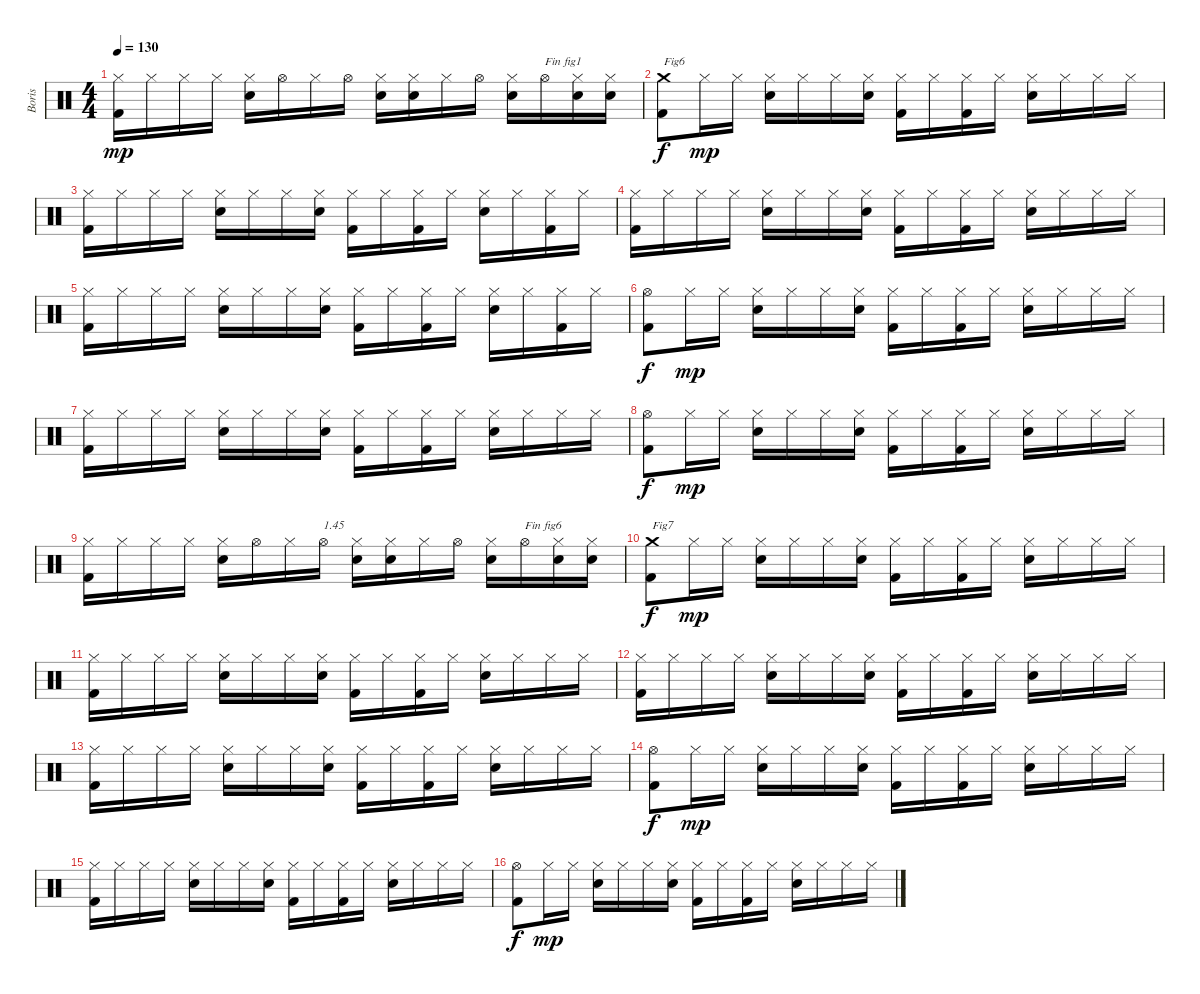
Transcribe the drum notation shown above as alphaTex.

\track ("Boris" "Boris") {instrument percussion}
\staff {score}
\articulation defaults
\ts (4 4)
\tempo 130
\clef neutral
\ks c
("Kick (hit) 2" "Hi-Hat (closed)").16{dy mp} "Hi-Hat (closed)".16 "Hi-Hat (closed)".16 "Hi-Hat (closed)".16 ("Electric Snare (hit)" "Hi-Hat (closed)").16 "Hi-Hat (open)".16 "Hi-Hat (closed)".16 "Hi-Hat (open)".16 ("Electric Snare (hit)" "Hi-Hat (closed)").16 ("Electric Snare (hit)" "Hi-Hat (closed)").16 "Hi-Hat (closed)".16 "Hi-Hat (open)".16 ("Electric Snare (hit)" "Hi-Hat (closed)").16 "Hi-Hat (open)".16{txt "Fin fig1"} ("Electric Snare (hit)" "Hi-Hat (closed)").16 ("Electric Snare (hit)" "Hi-Hat (closed)").16 |
("Kick (hit) 2" "Crash medium (hit)").8{txt "Fig6" dy f} "Hi-Hat (closed)".16{dy mp} "Hi-Hat (closed)".16 ("Electric Snare (hit)" "Hi-Hat (closed)").16 "Hi-Hat (closed)".16 "Hi-Hat (closed)".16 ("Electric Snare (hit)" "Hi-Hat (closed)").16 ("Kick (hit) 2" "Hi-Hat (closed)").16 "Hi-Hat (closed)".16 ("Kick (hit) 2" "Hi-Hat (closed)").16 "Hi-Hat (closed)".16 ("Electric Snare (hit)" "Hi-Hat (closed)").16 "Hi-Hat (closed)".16 "Hi-Hat (closed)".16 "Hi-Hat (closed)".16 |
("Kick (hit) 2" "Hi-Hat (closed)").16 "Hi-Hat (closed)".16 "Hi-Hat (closed)".16 "Hi-Hat (closed)".16 ("Electric Snare (hit)" "Hi-Hat (closed)").16 "Hi-Hat (closed)".16 "Hi-Hat (closed)".16 ("Electric Snare (hit)" "Hi-Hat (closed)").16 ("Kick (hit) 2" "Hi-Hat (closed)").16 "Hi-Hat (closed)".16 ("Kick (hit) 2" "Hi-Hat (closed)").16 "Hi-Hat (closed)".16 ("Electric Snare (hit)" "Hi-Hat (closed)").16 "Hi-Hat (closed)".16 ("Kick (hit) 2" "Hi-Hat (closed)").16 "Hi-Hat (closed)".16 |
("Kick (hit) 2" "Hi-Hat (closed)").16 "Hi-Hat (closed)".16 "Hi-Hat (closed)".16 "Hi-Hat (closed)".16 ("Electric Snare (hit)" "Hi-Hat (closed)").16 "Hi-Hat (closed)".16 "Hi-Hat (closed)".16 ("Electric Snare (hit)" "Hi-Hat (closed)").16 ("Kick (hit) 2" "Hi-Hat (closed)").16 "Hi-Hat (closed)".16 ("Kick (hit) 2" "Hi-Hat (closed)").16 "Hi-Hat (closed)".16 ("Electric Snare (hit)" "Hi-Hat (closed)").16 "Hi-Hat (closed)".16 "Hi-Hat (closed)".16 "Hi-Hat (closed)".16 |
("Kick (hit) 2" "Hi-Hat (closed)").16 "Hi-Hat (closed)".16 "Hi-Hat (closed)".16 "Hi-Hat (closed)".16 ("Electric Snare (hit)" "Hi-Hat (closed)").16 "Hi-Hat (closed)".16 "Hi-Hat (closed)".16 ("Electric Snare (hit)" "Hi-Hat (closed)").16 ("Kick (hit) 2" "Hi-Hat (closed)").16 "Hi-Hat (closed)".16 ("Kick (hit) 2" "Hi-Hat (closed)").16 "Hi-Hat (closed)".16 ("Electric Snare (hit)" "Hi-Hat (closed)").16 "Hi-Hat (closed)".16 ("Kick (hit) 2" "Hi-Hat (closed)").16 "Hi-Hat (closed)".16 |
("Kick (hit) 2" "Hi-Hat (open)").8{dy f} "Hi-Hat (closed)".16{dy mp} "Hi-Hat (closed)".16 ("Electric Snare (hit)" "Hi-Hat (closed)").16 "Hi-Hat (closed)".16 "Hi-Hat (closed)".16 ("Electric Snare (hit)" "Hi-Hat (closed)").16 ("Kick (hit) 2" "Hi-Hat (closed)").16 "Hi-Hat (closed)".16 ("Kick (hit) 2" "Hi-Hat (closed)").16 "Hi-Hat (closed)".16 ("Electric Snare (hit)" "Hi-Hat (closed)").16 "Hi-Hat (closed)".16 "Hi-Hat (closed)".16 "Hi-Hat (closed)".16 |
("Kick (hit) 2" "Hi-Hat (closed)").16 "Hi-Hat (closed)".16 "Hi-Hat (closed)".16 "Hi-Hat (closed)".16 ("Electric Snare (hit)" "Hi-Hat (closed)").16 "Hi-Hat (closed)".16 "Hi-Hat (closed)".16 ("Electric Snare (hit)" "Hi-Hat (closed)").16 ("Kick (hit) 2" "Hi-Hat (closed)").16 "Hi-Hat (closed)".16 ("Kick (hit) 2" "Hi-Hat (closed)").16 "Hi-Hat (closed)".16 ("Electric Snare (hit)" "Hi-Hat (closed)").16 "Hi-Hat (closed)".16 "Hi-Hat (closed)".16 "Hi-Hat (closed)".16 |
("Kick (hit) 2" "Hi-Hat (open)").8{dy f} "Hi-Hat (closed)".16{dy mp} "Hi-Hat (closed)".16 ("Electric Snare (hit)" "Hi-Hat (closed)").16 "Hi-Hat (closed)".16 "Hi-Hat (closed)".16 ("Electric Snare (hit)" "Hi-Hat (closed)").16 ("Kick (hit) 2" "Hi-Hat (closed)").16 "Hi-Hat (closed)".16 ("Kick (hit) 2" "Hi-Hat (closed)").16 "Hi-Hat (closed)".16 ("Electric Snare (hit)" "Hi-Hat (closed)").16 "Hi-Hat (closed)".16 "Hi-Hat (closed)".16 "Hi-Hat (closed)".16 |
("Kick (hit) 2" "Hi-Hat (closed)").16 "Hi-Hat (closed)".16 "Hi-Hat (closed)".16 "Hi-Hat (closed)".16 ("Electric Snare (hit)" "Hi-Hat (closed)").16 "Hi-Hat (open)".16 "Hi-Hat (closed)".16 "Hi-Hat (open)".16{txt "1.45"} ("Electric Snare (hit)" "Hi-Hat (closed)").16 ("Electric Snare (hit)" "Hi-Hat (closed)").16 "Hi-Hat (closed)".16 "Hi-Hat (open)".16 ("Electric Snare (hit)" "Hi-Hat (closed)").16 "Hi-Hat (open)".16{txt "Fin fig6"} ("Electric Snare (hit)" "Hi-Hat (closed)").16 ("Electric Snare (hit)" "Hi-Hat (closed)").16 |
("Kick (hit) 2" "Crash medium (hit)").8{txt "Fig7" dy f} "Hi-Hat (closed)".16{dy mp} "Hi-Hat (closed)".16 ("Electric Snare (hit)" "Hi-Hat (closed)").16 "Hi-Hat (closed)".16 "Hi-Hat (closed)".16 ("Electric Snare (hit)" "Hi-Hat (closed)").16 ("Kick (hit) 2" "Hi-Hat (closed)").16 "Hi-Hat (closed)".16 ("Kick (hit) 2" "Hi-Hat (closed)").16 "Hi-Hat (closed)".16 ("Electric Snare (hit)" "Hi-Hat (closed)").16 "Hi-Hat (closed)".16 "Hi-Hat (closed)".16 "Hi-Hat (closed)".16 |
("Kick (hit) 2" "Hi-Hat (closed)").16 "Hi-Hat (closed)".16 "Hi-Hat (closed)".16 "Hi-Hat (closed)".16 ("Electric Snare (hit)" "Hi-Hat (closed)").16 "Hi-Hat (closed)".16 "Hi-Hat (closed)".16 ("Electric Snare (hit)" "Hi-Hat (closed)").16 ("Kick (hit) 2" "Hi-Hat (closed)").16 "Hi-Hat (closed)".16 ("Kick (hit) 2" "Hi-Hat (closed)").16 "Hi-Hat (closed)".16 ("Electric Snare (hit)" "Hi-Hat (closed)").16 "Hi-Hat (closed)".16 "Hi-Hat (closed)".16 "Hi-Hat (closed)".16 |
("Kick (hit) 2" "Hi-Hat (closed)").16 "Hi-Hat (closed)".16 "Hi-Hat (closed)".16 "Hi-Hat (closed)".16 ("Electric Snare (hit)" "Hi-Hat (closed)").16 "Hi-Hat (closed)".16 "Hi-Hat (closed)".16 ("Electric Snare (hit)" "Hi-Hat (closed)").16 ("Kick (hit) 2" "Hi-Hat (closed)").16 "Hi-Hat (closed)".16 ("Kick (hit) 2" "Hi-Hat (closed)").16 "Hi-Hat (closed)".16 ("Electric Snare (hit)" "Hi-Hat (closed)").16 "Hi-Hat (closed)".16 "Hi-Hat (closed)".16 "Hi-Hat (closed)".16 |
("Kick (hit) 2" "Hi-Hat (closed)").16 "Hi-Hat (closed)".16 "Hi-Hat (closed)".16 "Hi-Hat (closed)".16 ("Electric Snare (hit)" "Hi-Hat (closed)").16 "Hi-Hat (closed)".16 "Hi-Hat (closed)".16 ("Electric Snare (hit)" "Hi-Hat (closed)").16 ("Kick (hit) 2" "Hi-Hat (closed)").16 "Hi-Hat (closed)".16 ("Kick (hit) 2" "Hi-Hat (closed)").16 "Hi-Hat (closed)".16 ("Electric Snare (hit)" "Hi-Hat (closed)").16 "Hi-Hat (closed)".16 "Hi-Hat (closed)".16 "Hi-Hat (closed)".16 |
("Kick (hit) 2" "Hi-Hat (open)").8{dy f} "Hi-Hat (closed)".16{dy mp} "Hi-Hat (closed)".16 ("Electric Snare (hit)" "Hi-Hat (closed)").16 "Hi-Hat (closed)".16 "Hi-Hat (closed)".16 ("Electric Snare (hit)" "Hi-Hat (closed)").16 ("Kick (hit) 2" "Hi-Hat (closed)").16 "Hi-Hat (closed)".16 ("Kick (hit) 2" "Hi-Hat (closed)").16 "Hi-Hat (closed)".16 ("Electric Snare (hit)" "Hi-Hat (closed)").16 "Hi-Hat (closed)".16 "Hi-Hat (closed)".16 "Hi-Hat (closed)".16 |
("Kick (hit) 2" "Hi-Hat (closed)").16 "Hi-Hat (closed)".16 "Hi-Hat (closed)".16 "Hi-Hat (closed)".16 ("Electric Snare (hit)" "Hi-Hat (closed)").16 "Hi-Hat (closed)".16 "Hi-Hat (closed)".16 ("Electric Snare (hit)" "Hi-Hat (closed)").16 ("Kick (hit) 2" "Hi-Hat (closed)").16 "Hi-Hat (closed)".16 ("Kick (hit) 2" "Hi-Hat (closed)").16 "Hi-Hat (closed)".16 ("Electric Snare (hit)" "Hi-Hat (closed)").16 "Hi-Hat (closed)".16 "Hi-Hat (closed)".16 "Hi-Hat (closed)".16 |
("Kick (hit) 2" "Hi-Hat (open)").8{dy f} "Hi-Hat (closed)".16{dy mp} "Hi-Hat (closed)".16 ("Electric Snare (hit)" "Hi-Hat (closed)").16 "Hi-Hat (closed)".16 "Hi-Hat (closed)".16 ("Electric Snare (hit)" "Hi-Hat (closed)").16 ("Kick (hit) 2" "Hi-Hat (closed)").16 "Hi-Hat (closed)".16 ("Kick (hit) 2" "Hi-Hat (closed)").16 "Hi-Hat (closed)".16 ("Electric Snare (hit)" "Hi-Hat (closed)").16 "Hi-Hat (closed)".16 "Hi-Hat (closed)".16 "Hi-Hat (closed)".16
